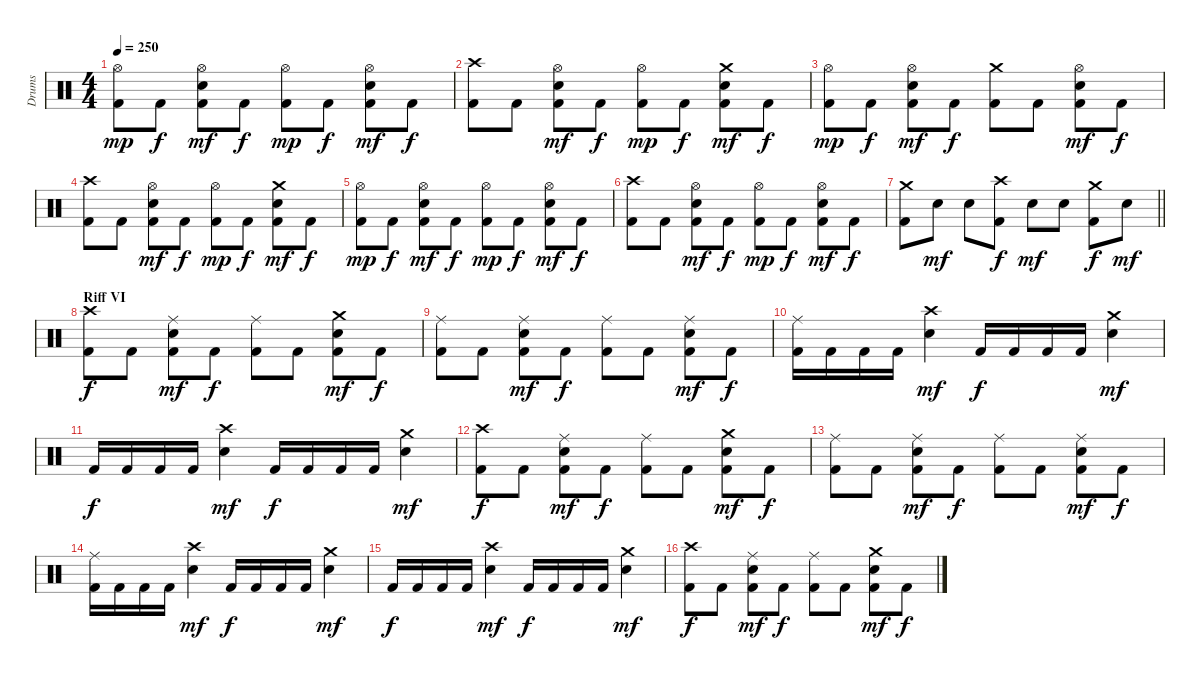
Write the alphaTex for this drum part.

\track ("Drums" "Drums") {instrument percussion}
\staff {score}
\articulation defaults
\ts (4 4)
\tempo 250
\clef neutral
\ks c
("Hi-Hat (open)" "Kick (hit) 2").8{dy mp} "Kick (hit) 2".8{dy f} ("Hi-Hat (open)" "Electric Snare (hit)" "Kick (hit) 2").8{dy mf} "Kick (hit) 2".8{dy f} ("Hi-Hat (open)" "Kick (hit) 2").8{dy mp} "Kick (hit) 2".8{dy f} ("Hi-Hat (open)" "Electric Snare (hit)" "Kick (hit) 2").8{dy mf} "Kick (hit) 2".8{dy f} |
("Crash high (hit)" "Kick (hit) 2").8 "Kick (hit) 2".8 ("Hi-Hat (open)" "Electric Snare (hit)" "Kick (hit) 2").8{dy mf} "Kick (hit) 2".8{dy f} ("Hi-Hat (open)" "Kick (hit) 2").8{dy mp} "Kick (hit) 2".8{dy f} ("Crash medium (hit)" "Electric Snare (hit)" "Kick (hit) 2").8{dy mf} "Kick (hit) 2".8{dy f} |
("Hi-Hat (open)" "Kick (hit) 2").8{dy mp} "Kick (hit) 2".8{dy f} ("Hi-Hat (open)" "Electric Snare (hit)" "Kick (hit) 2").8{dy mf} "Kick (hit) 2".8{dy f} ("Crash medium (hit)" "Kick (hit) 2").8 "Kick (hit) 2".8 ("Hi-Hat (open)" "Electric Snare (hit)" "Kick (hit) 2").8{dy mf} "Kick (hit) 2".8{dy f} |
("Crash high (hit)" "Kick (hit) 2").8 "Kick (hit) 2".8 ("Hi-Hat (open)" "Electric Snare (hit)" "Kick (hit) 2").8{dy mf} "Kick (hit) 2".8{dy f} ("Hi-Hat (open)" "Kick (hit) 2").8{dy mp} "Kick (hit) 2".8{dy f} ("Crash medium (hit)" "Electric Snare (hit)" "Kick (hit) 2").8{dy mf} "Kick (hit) 2".8{dy f} |
("Hi-Hat (open)" "Kick (hit) 2").8{dy mp} "Kick (hit) 2".8{dy f} ("Hi-Hat (open)" "Electric Snare (hit)" "Kick (hit) 2").8{dy mf} "Kick (hit) 2".8{dy f} ("Hi-Hat (open)" "Kick (hit) 2").8{dy mp} "Kick (hit) 2".8{dy f} ("Hi-Hat (open)" "Electric Snare (hit)" "Kick (hit) 2").8{dy mf} "Kick (hit) 2".8{dy f} |
("Crash high (hit)" "Kick (hit) 2").8 "Kick (hit) 2".8 ("Hi-Hat (open)" "Electric Snare (hit)" "Kick (hit) 2").8{dy mf} "Kick (hit) 2".8{dy f} ("Hi-Hat (open)" "Kick (hit) 2").8{dy mp} "Kick (hit) 2".8{dy f} ("Hi-Hat (open)" "Electric Snare (hit)" "Kick (hit) 2").8{dy mf} "Kick (hit) 2".8{dy f} |
\barLineRight lightlight
("Crash medium (hit)" "Kick (hit) 2").8 "Electric Snare (hit)".8{dy mf} "Electric Snare (hit)".8 ("Crash high (hit)" "Kick (hit) 2").8{dy f} "Electric Snare (hit)".8{dy mf} "Electric Snare (hit)".8 ("Crash medium (hit)" "Kick (hit) 2").8{dy f} "Electric Snare (hit)".8{dy mf} |
\section ("" "Riff VI")
("Crash high (hit)" "Kick (hit) 2").8{dy f} "Kick (hit) 2".8 ("Ride (middle)" "Electric Snare (hit)" "Kick (hit) 2").8{dy mf} "Kick (hit) 2".8{dy f} ("Ride (middle)" "Kick (hit) 2").8 "Kick (hit) 2".8 ("Crash medium (hit)" "Electric Snare (hit)" "Kick (hit) 2").8{dy mf} "Kick (hit) 2".8{dy f} |
("Ride (middle)" "Kick (hit) 2").8 "Kick (hit) 2".8 ("Ride (middle)" "Electric Snare (hit)" "Kick (hit) 2").8{dy mf} "Kick (hit) 2".8{dy f} ("Ride (middle)" "Kick (hit) 2").8 "Kick (hit) 2".8 ("Ride (middle)" "Electric Snare (hit)" "Kick (hit) 2").8{dy mf} "Kick (hit) 2".8{dy f} |
("Ride (middle)" "Kick (hit) 2").16 "Kick (hit) 2".16 "Kick (hit) 2".16 "Kick (hit) 2".16 ("Crash high (hit)" "Electric Snare (hit)").4{dy mf} "Kick (hit) 2".16{dy f} "Kick (hit) 2".16 "Kick (hit) 2".16 "Kick (hit) 2".16 ("Crash medium (hit)" "Electric Snare (hit)").4{dy mf} |
"Kick (hit) 2".16{dy f} "Kick (hit) 2".16 "Kick (hit) 2".16 "Kick (hit) 2".16 ("Crash high (hit)" "Electric Snare (hit)").4{dy mf} "Kick (hit) 2".16{dy f} "Kick (hit) 2".16 "Kick (hit) 2".16 "Kick (hit) 2".16 ("Crash medium (hit)" "Electric Snare (hit)").4{dy mf} |
("Crash high (hit)" "Kick (hit) 2").8{dy f} "Kick (hit) 2".8 ("Ride (middle)" "Electric Snare (hit)" "Kick (hit) 2").8{dy mf} "Kick (hit) 2".8{dy f} ("Ride (middle)" "Kick (hit) 2").8 "Kick (hit) 2".8 ("Crash medium (hit)" "Electric Snare (hit)" "Kick (hit) 2").8{dy mf} "Kick (hit) 2".8{dy f} |
("Ride (middle)" "Kick (hit) 2").8 "Kick (hit) 2".8 ("Ride (middle)" "Electric Snare (hit)" "Kick (hit) 2").8{dy mf} "Kick (hit) 2".8{dy f} ("Ride (middle)" "Kick (hit) 2").8 "Kick (hit) 2".8 ("Ride (middle)" "Electric Snare (hit)" "Kick (hit) 2").8{dy mf} "Kick (hit) 2".8{dy f} |
("Ride (middle)" "Kick (hit) 2").16 "Kick (hit) 2".16 "Kick (hit) 2".16 "Kick (hit) 2".16 ("Crash high (hit)" "Electric Snare (hit)").4{dy mf} "Kick (hit) 2".16{dy f} "Kick (hit) 2".16 "Kick (hit) 2".16 "Kick (hit) 2".16 ("Crash medium (hit)" "Electric Snare (hit)").4{dy mf} |
"Kick (hit) 2".16{dy f} "Kick (hit) 2".16 "Kick (hit) 2".16 "Kick (hit) 2".16 ("Crash high (hit)" "Electric Snare (hit)").4{dy mf} "Kick (hit) 2".16{dy f} "Kick (hit) 2".16 "Kick (hit) 2".16 "Kick (hit) 2".16 ("Crash medium (hit)" "Electric Snare (hit)").4{dy mf} |
("Crash high (hit)" "Kick (hit) 2").8{dy f} "Kick (hit) 2".8 ("Ride (middle)" "Electric Snare (hit)" "Kick (hit) 2").8{dy mf} "Kick (hit) 2".8{dy f} ("Ride (middle)" "Kick (hit) 2").8 "Kick (hit) 2".8 ("Crash medium (hit)" "Electric Snare (hit)" "Kick (hit) 2").8{dy mf} "Kick (hit) 2".8{dy f}
